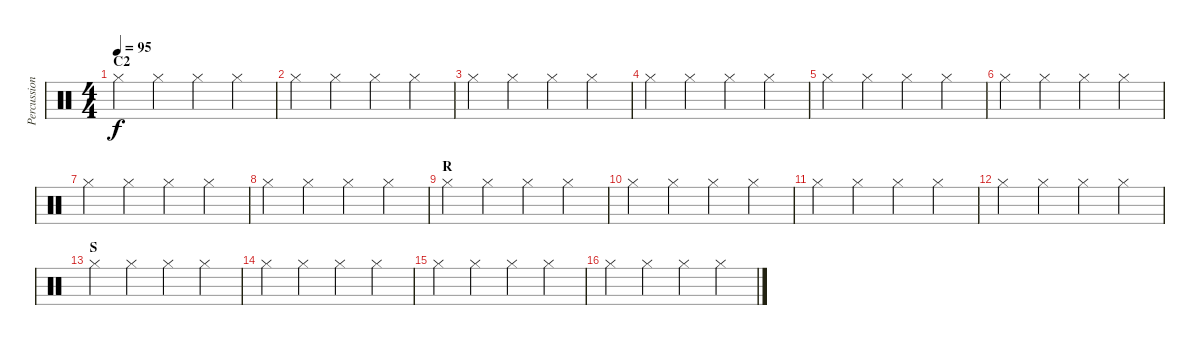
\track ("Percussions" "Percussion") {instrument percussion}
\staff {score}
\articulation defaults
\ts (4 4)
\section ("" "C2")
\tempo 95
\clef neutral
\ks c "Hi-Hat (closed)".4{dy f} "Hi-Hat (closed)".4 "Hi-Hat (closed)".4 "Hi-Hat (closed)".4
|
"Hi-Hat (closed)".4 "Hi-Hat (closed)".4 "Hi-Hat (closed)".4 "Hi-Hat (closed)".4 |
"Hi-Hat (closed)".4 "Hi-Hat (closed)".4 "Hi-Hat (closed)".4 "Hi-Hat (closed)".4 |
"Hi-Hat (closed)".4 "Hi-Hat (closed)".4 "Hi-Hat (closed)".4 "Hi-Hat (closed)".4 |
"Hi-Hat (closed)".4 "Hi-Hat (closed)".4 "Hi-Hat (closed)".4 "Hi-Hat (closed)".4 |
"Hi-Hat (closed)".4 "Hi-Hat (closed)".4 "Hi-Hat (closed)".4 "Hi-Hat (closed)".4 |
"Hi-Hat (closed)".4 "Hi-Hat (closed)".4 "Hi-Hat (closed)".4 "Hi-Hat (closed)".4 |
"Hi-Hat (closed)".4 "Hi-Hat (closed)".4 "Hi-Hat (closed)".4 "Hi-Hat (closed)".4 |
\section ("" "R")
"Hi-Hat (closed)".4 "Hi-Hat (closed)".4 "Hi-Hat (closed)".4 "Hi-Hat (closed)".4 |
"Hi-Hat (closed)".4 "Hi-Hat (closed)".4 "Hi-Hat (closed)".4 "Hi-Hat (closed)".4 |
"Hi-Hat (closed)".4 "Hi-Hat (closed)".4 "Hi-Hat (closed)".4 "Hi-Hat (closed)".4 |
"Hi-Hat (closed)".4 "Hi-Hat (closed)".4 "Hi-Hat (closed)".4 "Hi-Hat (closed)".4 |
\section ("" "S")
"Hi-Hat (closed)".4 "Hi-Hat (closed)".4 "Hi-Hat (closed)".4 "Hi-Hat (closed)".4 |
"Hi-Hat (closed)".4 "Hi-Hat (closed)".4 "Hi-Hat (closed)".4 "Hi-Hat (closed)".4 |
"Hi-Hat (closed)".4 "Hi-Hat (closed)".4 "Hi-Hat (closed)".4 "Hi-Hat (closed)".4 |
"Hi-Hat (closed)".4 "Hi-Hat (closed)".4 "Hi-Hat (closed)".4 "Hi-Hat (closed)".4
